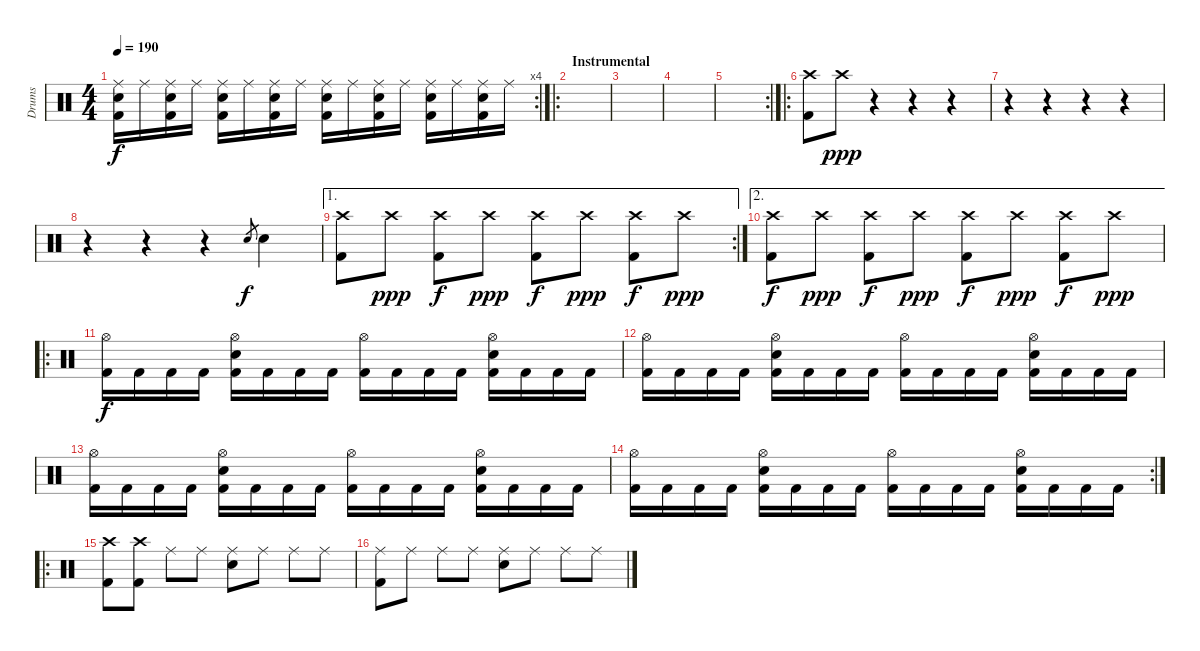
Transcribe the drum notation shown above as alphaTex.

\track ("Drums" "Drums") {instrument percussion}
\staff {score}
\articulation defaults
\rc 4
\ts (4 4)
\tempo 190
\clef neutral
\ks c
("Ride (middle)" "Kick (hit) 2" "Electric Snare (hit)").16{dy f} "Ride (middle)".16 ("Ride (middle)" "Kick (hit) 2" "Electric Snare (hit)").16 "Ride (middle)".16 ("Ride (middle)" "Kick (hit) 2" "Electric Snare (hit)").16 "Ride (middle)".16 ("Ride (middle)" "Kick (hit) 2" "Electric Snare (hit)").16 "Ride (middle)".16 ("Ride (middle)" "Kick (hit) 2" "Electric Snare (hit)").16 "Ride (middle)".16 ("Ride (middle)" "Kick (hit) 2" "Electric Snare (hit)").16 "Ride (middle)".16 ("Ride (middle)" "Kick (hit) 2" "Electric Snare (hit)").16 "Ride (middle)".16 ("Ride (middle)" "Kick (hit) 2" "Electric Snare (hit)").16 "Ride (middle)".16 |
\ro
\section ("" "Instrumental")
|
|
|
\rc 2
|
\ro
("Crash high (hit)" "Kick (hit) 2").8 "Crash high (hit)".8{dy ppp} r.4 r.4 r.4 |
r.4 r.4 r.4 r.4 |
r.4 r.4 r.4 "Electric Snare (hit)".8{gr dy f} "Electric Snare (hit)".4 |
\ae 1
\rc 2
("Crash high (hit)" "Kick (hit) 2").8 "Crash high (hit)".8{dy ppp} ("Crash high (hit)" "Kick (hit) 2").8{dy f} "Crash high (hit)".8{dy ppp} ("Crash high (hit)" "Kick (hit) 2").8{dy f} "Crash high (hit)".8{dy ppp} ("Crash high (hit)" "Kick (hit) 2").8{dy f} "Crash high (hit)".8{dy ppp} |
\ae 2
("Crash high (hit)" "Kick (hit) 2").8{dy f} "Crash high (hit)".8{dy ppp} ("Crash high (hit)" "Kick (hit) 2").8{dy f} "Crash high (hit)".8{dy ppp} ("Crash high (hit)" "Kick (hit) 2").8{dy f} "Crash high (hit)".8{dy ppp} ("Crash high (hit)" "Kick (hit) 2").8{dy f} "Crash high (hit)".8{dy ppp} |
\ro
("Kick (hit) 2" "Hi-Hat (open)").16{dy f} "Kick (hit) 2".16 "Kick (hit) 2".16 "Kick (hit) 2".16 ("Kick (hit) 2" "Hi-Hat (open)" "Electric Snare (hit)").16 "Kick (hit) 2".16 "Kick (hit) 2".16 "Kick (hit) 2".16 ("Kick (hit) 2" "Hi-Hat (open)").16 "Kick (hit) 2".16 "Kick (hit) 2".16 "Kick (hit) 2".16 ("Kick (hit) 2" "Hi-Hat (open)" "Electric Snare (hit)").16 "Kick (hit) 2".16 "Kick (hit) 2".16 "Kick (hit) 2".16 |
("Kick (hit) 2" "Hi-Hat (open)").16 "Kick (hit) 2".16 "Kick (hit) 2".16 "Kick (hit) 2".16 ("Kick (hit) 2" "Hi-Hat (open)" "Electric Snare (hit)").16 "Kick (hit) 2".16 "Kick (hit) 2".16 "Kick (hit) 2".16 ("Kick (hit) 2" "Hi-Hat (open)").16 "Kick (hit) 2".16 "Kick (hit) 2".16 "Kick (hit) 2".16 ("Kick (hit) 2" "Hi-Hat (open)" "Electric Snare (hit)").16 "Kick (hit) 2".16 "Kick (hit) 2".16 "Kick (hit) 2".16 |
("Kick (hit) 2" "Hi-Hat (open)").16 "Kick (hit) 2".16 "Kick (hit) 2".16 "Kick (hit) 2".16 ("Kick (hit) 2" "Hi-Hat (open)" "Electric Snare (hit)").16 "Kick (hit) 2".16 "Kick (hit) 2".16 "Kick (hit) 2".16 ("Kick (hit) 2" "Hi-Hat (open)").16 "Kick (hit) 2".16 "Kick (hit) 2".16 "Kick (hit) 2".16 ("Kick (hit) 2" "Hi-Hat (open)" "Electric Snare (hit)").16 "Kick (hit) 2".16 "Kick (hit) 2".16 "Kick (hit) 2".16 |
\rc 2
("Kick (hit) 2" "Hi-Hat (open)").16 "Kick (hit) 2".16 "Kick (hit) 2".16 "Kick (hit) 2".16 ("Kick (hit) 2" "Hi-Hat (open)" "Electric Snare (hit)").16 "Kick (hit) 2".16 "Kick (hit) 2".16 "Kick (hit) 2".16 ("Kick (hit) 2" "Hi-Hat (open)").16 "Kick (hit) 2".16 "Kick (hit) 2".16 "Kick (hit) 2".16 ("Kick (hit) 2" "Hi-Hat (open)" "Electric Snare (hit)").16 "Kick (hit) 2".16 "Kick (hit) 2".16 "Kick (hit) 2".16 |
\ro
("Crash high (hit)" "Kick (hit) 2").8 ("Crash high (hit)" "Kick (hit) 2").8 "Ride (middle)".8 "Ride (middle)".8 ("Ride (middle)" "Electric Snare (hit)").8 "Ride (middle)".8 "Ride (middle)".8 "Ride (middle)".8 |
("Ride (middle)" "Kick (hit) 2").8 "Ride (middle)".8 "Ride (middle)".8 "Ride (middle)".8 ("Ride (middle)" "Electric Snare (hit)").8 "Ride (middle)".8 "Ride (middle)".8 "Ride (middle)".8
